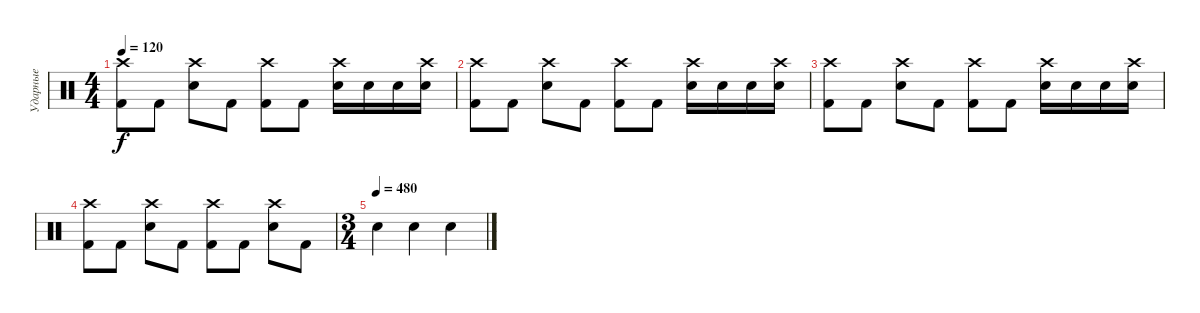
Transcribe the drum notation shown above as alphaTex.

\track ("Ударные" "Ударные") {instrument percussion}
\staff {score}
\articulation defaults
\ts (4 4)
\tempo 120
\clef neutral
\ks c
("Kick (hit) 2" "Crash high (hit)").8{dy f} "Kick (hit) 2".8 ("Electric Snare (hit)" "Crash high (hit)").8 "Kick (hit) 2".8 ("Kick (hit) 2" "Crash high (hit)").8 "Kick (hit) 2".8 ("Electric Snare (hit)" "Crash high (hit)").16 "Electric Snare (hit)".16 "Electric Snare (hit)".16 ("Electric Snare (hit)" "Crash high (hit)").16 |
("Kick (hit) 2" "Crash high (hit)").8 "Kick (hit) 2".8 ("Electric Snare (hit)" "Crash high (hit)").8 "Kick (hit) 2".8 ("Kick (hit) 2" "Crash high (hit)").8 "Kick (hit) 2".8 ("Electric Snare (hit)" "Crash high (hit)").16 "Electric Snare (hit)".16 "Electric Snare (hit)".16 ("Electric Snare (hit)" "Crash high (hit)").16 |
("Kick (hit) 2" "Crash high (hit)").8 "Kick (hit) 2".8 ("Electric Snare (hit)" "Crash high (hit)").8 "Kick (hit) 2".8 ("Kick (hit) 2" "Crash high (hit)").8 "Kick (hit) 2".8 ("Electric Snare (hit)" "Crash high (hit)").16 "Electric Snare (hit)".16 "Electric Snare (hit)".16 ("Electric Snare (hit)" "Crash high (hit)").16 |
("Kick (hit) 2" "Crash high (hit)").8 "Kick (hit) 2".8 ("Electric Snare (hit)" "Crash high (hit)").8 "Kick (hit) 2".8 ("Kick (hit) 2" "Crash high (hit)").8 "Kick (hit) 2".8 ("Electric Snare (hit)" "Crash high (hit)").8 "Kick (hit) 2".8 |
\ts (3 4)
\tempo (480)
"Electric Snare (hit)".4 "Electric Snare (hit)".4 "Electric Snare (hit)".4
